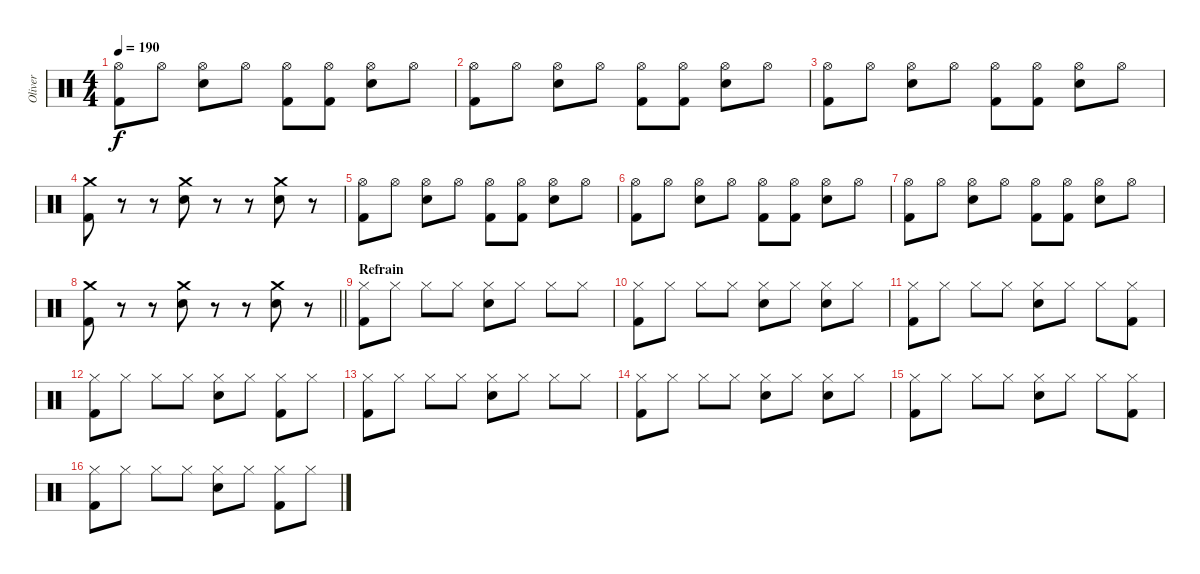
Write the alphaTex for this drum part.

\track ("Oliver" "Oliver") {instrument percussion}
\staff {score}
\articulation defaults
\ts (4 4)
\tempo 190
\clef neutral
\ks c
("Hi-Hat (open)" "Kick (hit) 2").8{dy f} "Hi-Hat (open)".8 ("Hi-Hat (open)" "Snare (hit) 2").8 "Hi-Hat (open)".8 ("Hi-Hat (open)" "Kick (hit) 2").8 ("Hi-Hat (open)" "Kick (hit) 2").8 ("Hi-Hat (open)" "Snare (hit) 2").8 "Hi-Hat (open)".8 |
("Hi-Hat (open)" "Kick (hit) 2").8 "Hi-Hat (open)".8 ("Hi-Hat (open)" "Snare (hit) 2").8 "Hi-Hat (open)".8 ("Hi-Hat (open)" "Kick (hit) 2").8 ("Hi-Hat (open)" "Kick (hit) 2").8 ("Hi-Hat (open)" "Snare (hit) 2").8 "Hi-Hat (open)".8 |
("Hi-Hat (open)" "Kick (hit) 2").8 "Hi-Hat (open)".8 ("Hi-Hat (open)" "Snare (hit) 2").8 "Hi-Hat (open)".8 ("Hi-Hat (open)" "Kick (hit) 2").8 ("Hi-Hat (open)" "Kick (hit) 2").8 ("Hi-Hat (open)" "Snare (hit) 2").8 "Hi-Hat (open)".8 |
("Crash medium (hit)" "Kick (hit) 2").8 r.8 r.8 ("Crash medium (hit)" "Snare (hit) 2").8 r.8 r.8 ("Crash medium (hit)" "Snare (hit) 2").8 r.8 |
("Hi-Hat (open)" "Kick (hit) 2").8 "Hi-Hat (open)".8 ("Hi-Hat (open)" "Snare (hit) 2").8 "Hi-Hat (open)".8 ("Hi-Hat (open)" "Kick (hit) 2").8 ("Hi-Hat (open)" "Kick (hit) 2").8 ("Hi-Hat (open)" "Snare (hit) 2").8 "Hi-Hat (open)".8 |
("Hi-Hat (open)" "Kick (hit) 2").8 "Hi-Hat (open)".8 ("Hi-Hat (open)" "Snare (hit) 2").8 "Hi-Hat (open)".8 ("Hi-Hat (open)" "Kick (hit) 2").8 ("Hi-Hat (open)" "Kick (hit) 2").8 ("Hi-Hat (open)" "Snare (hit) 2").8 "Hi-Hat (open)".8 |
("Hi-Hat (open)" "Kick (hit) 2").8 "Hi-Hat (open)".8 ("Hi-Hat (open)" "Snare (hit) 2").8 "Hi-Hat (open)".8 ("Hi-Hat (open)" "Kick (hit) 2").8 ("Hi-Hat (open)" "Kick (hit) 2").8 ("Hi-Hat (open)" "Snare (hit) 2").8 "Hi-Hat (open)".8 |
\barLineRight lightlight
("Crash medium (hit)" "Kick (hit) 2").8 r.8 r.8 ("Crash medium (hit)" "Snare (hit) 2").8 r.8 r.8 ("Crash medium (hit)" "Snare (hit) 2").8 r.8 |
\section ("" "Refrain")
("Hi-Hat (closed)" "Kick (hit) 2").8 "Hi-Hat (closed)".8 "Hi-Hat (closed)".8 "Hi-Hat (closed)".8 ("Hi-Hat (closed)" "Snare (hit) 2").8 "Hi-Hat (closed)".8 "Hi-Hat (closed)".8 "Hi-Hat (closed)".8 |
("Hi-Hat (closed)" "Kick (hit) 2").8 "Hi-Hat (closed)".8 "Hi-Hat (closed)".8 "Hi-Hat (closed)".8 ("Hi-Hat (closed)" "Snare (hit) 2").8 "Hi-Hat (closed)".8 ("Hi-Hat (closed)" "Snare (hit) 2").8 "Hi-Hat (closed)".8 |
("Hi-Hat (closed)" "Kick (hit) 2").8 "Hi-Hat (closed)".8 "Hi-Hat (closed)".8 "Hi-Hat (closed)".8 ("Hi-Hat (closed)" "Snare (hit) 2").8 "Hi-Hat (closed)".8 "Hi-Hat (closed)".8 ("Hi-Hat (closed)" "Kick (hit) 2").8 |
("Hi-Hat (closed)" "Kick (hit) 2").8 "Hi-Hat (closed)".8 "Hi-Hat (closed)".8 "Hi-Hat (closed)".8 ("Hi-Hat (closed)" "Snare (hit) 2").8 "Hi-Hat (closed)".8 ("Hi-Hat (closed)" "Kick (hit) 2").8 "Hi-Hat (closed)".8 |
("Hi-Hat (closed)" "Kick (hit) 2").8 "Hi-Hat (closed)".8 "Hi-Hat (closed)".8 "Hi-Hat (closed)".8 ("Hi-Hat (closed)" "Snare (hit) 2").8 "Hi-Hat (closed)".8 "Hi-Hat (closed)".8 "Hi-Hat (closed)".8 |
("Hi-Hat (closed)" "Kick (hit) 2").8 "Hi-Hat (closed)".8 "Hi-Hat (closed)".8 "Hi-Hat (closed)".8 ("Hi-Hat (closed)" "Snare (hit) 2").8 "Hi-Hat (closed)".8 ("Hi-Hat (closed)" "Snare (hit) 2").8 "Hi-Hat (closed)".8 |
("Hi-Hat (closed)" "Kick (hit) 2").8 "Hi-Hat (closed)".8 "Hi-Hat (closed)".8 "Hi-Hat (closed)".8 ("Hi-Hat (closed)" "Snare (hit) 2").8 "Hi-Hat (closed)".8 "Hi-Hat (closed)".8 ("Hi-Hat (closed)" "Kick (hit) 2").8 |
("Hi-Hat (closed)" "Kick (hit) 2").8 "Hi-Hat (closed)".8 "Hi-Hat (closed)".8 "Hi-Hat (closed)".8 ("Hi-Hat (closed)" "Snare (hit) 2").8 "Hi-Hat (closed)".8 ("Hi-Hat (closed)" "Kick (hit) 2").8 "Hi-Hat (closed)".8
